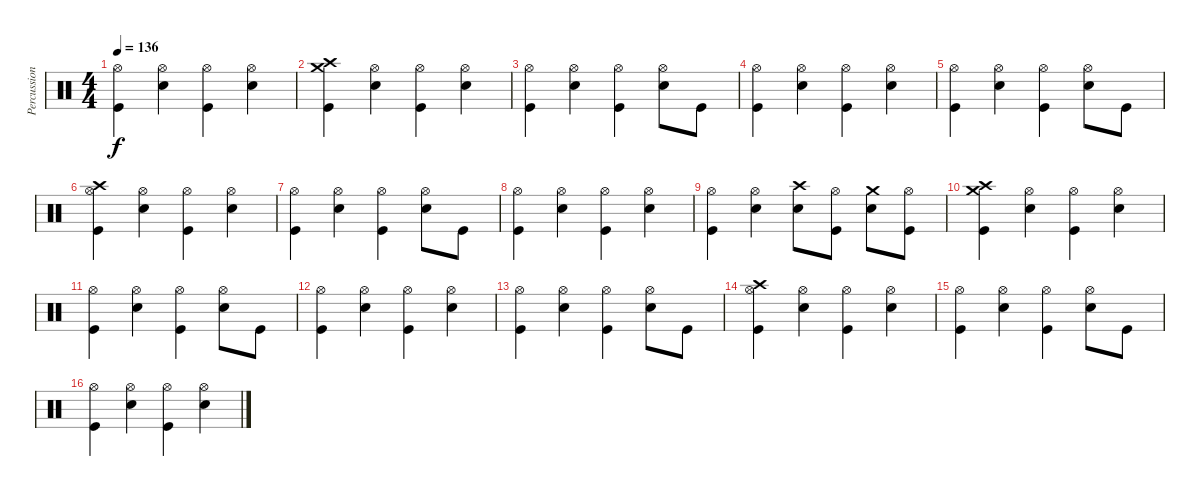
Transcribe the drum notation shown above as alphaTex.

\track ("Percussion" "Percussion") {instrument percussion}
\staff {score}
\articulation defaults
\ts (4 4)
\tempo 136
\clef neutral
\ks c
("Hi-Hat (open)" "Kick (hit)").4{dy f} ("Hi-Hat (open)" "Electric Snare (hit)").4 ("Hi-Hat (open)" "Kick (hit)").4 ("Hi-Hat (open)" "Electric Snare (hit)").4 |
("Crash high (hit)" "Crash medium (hit)" "Kick (hit)").4 ("Hi-Hat (open)" "Electric Snare (hit)").4 ("Hi-Hat (open)" "Kick (hit)").4 ("Hi-Hat (open)" "Electric Snare (hit)").4 |
("Hi-Hat (open)" "Kick (hit)").4 ("Hi-Hat (open)" "Electric Snare (hit)").4 ("Hi-Hat (open)" "Kick (hit)").4 ("Hi-Hat (open)" "Electric Snare (hit)").8 "Kick (hit)".8 |
("Hi-Hat (open)" "Kick (hit)").4 ("Hi-Hat (open)" "Electric Snare (hit)").4 ("Hi-Hat (open)" "Kick (hit)").4 ("Hi-Hat (open)" "Electric Snare (hit)").4 |
("Hi-Hat (open)" "Kick (hit)").4 ("Hi-Hat (open)" "Electric Snare (hit)").4 ("Hi-Hat (open)" "Kick (hit)").4 ("Hi-Hat (open)" "Electric Snare (hit)").8 "Kick (hit)".8 |
("Crash high (hit)" "Hi-Hat (open)" "Kick (hit)").4 ("Hi-Hat (open)" "Electric Snare (hit)").4 ("Hi-Hat (open)" "Kick (hit)").4 ("Hi-Hat (open)" "Electric Snare (hit)").4 |
("Hi-Hat (open)" "Kick (hit)").4 ("Hi-Hat (open)" "Electric Snare (hit)").4 ("Hi-Hat (open)" "Kick (hit)").4 ("Hi-Hat (open)" "Electric Snare (hit)").8 "Kick (hit)".8 |
("Hi-Hat (open)" "Kick (hit)").4 ("Hi-Hat (open)" "Electric Snare (hit)").4 ("Hi-Hat (open)" "Kick (hit)").4 ("Hi-Hat (open)" "Electric Snare (hit)").4 |
("Hi-Hat (open)" "Kick (hit)").4 ("Hi-Hat (open)" "Electric Snare (hit)").4 ("Crash high (hit)" "Electric Snare (hit)").8 ("Hi-Hat (open)" "Kick (hit)").8 ("Crash medium (hit)" "Electric Snare (hit)").8 ("Hi-Hat (open)" "Kick (hit)").8 |
("Crash high (hit)" "Crash medium (hit)" "Kick (hit)").4 ("Hi-Hat (open)" "Electric Snare (hit)").4 ("Hi-Hat (open)" "Kick (hit)").4 ("Hi-Hat (open)" "Electric Snare (hit)").4 |
("Hi-Hat (open)" "Kick (hit)").4 ("Hi-Hat (open)" "Electric Snare (hit)").4 ("Hi-Hat (open)" "Kick (hit)").4 ("Hi-Hat (open)" "Electric Snare (hit)").8 "Kick (hit)".8 |
("Hi-Hat (open)" "Kick (hit)").4 ("Hi-Hat (open)" "Electric Snare (hit)").4 ("Hi-Hat (open)" "Kick (hit)").4 ("Hi-Hat (open)" "Electric Snare (hit)").4 |
("Hi-Hat (open)" "Kick (hit)").4 ("Hi-Hat (open)" "Electric Snare (hit)").4 ("Hi-Hat (open)" "Kick (hit)").4 ("Hi-Hat (open)" "Electric Snare (hit)").8 "Kick (hit)".8 |
("Crash high (hit)" "Hi-Hat (open)" "Kick (hit)").4 ("Hi-Hat (open)" "Electric Snare (hit)").4 ("Hi-Hat (open)" "Kick (hit)").4 ("Hi-Hat (open)" "Electric Snare (hit)").4 |
("Hi-Hat (open)" "Kick (hit)").4 ("Hi-Hat (open)" "Electric Snare (hit)").4 ("Hi-Hat (open)" "Kick (hit)").4 ("Hi-Hat (open)" "Electric Snare (hit)").8 "Kick (hit)".8 |
("Hi-Hat (open)" "Kick (hit)").4 ("Hi-Hat (open)" "Electric Snare (hit)").4 ("Hi-Hat (open)" "Kick (hit)").4 ("Hi-Hat (open)" "Electric Snare (hit)").4
